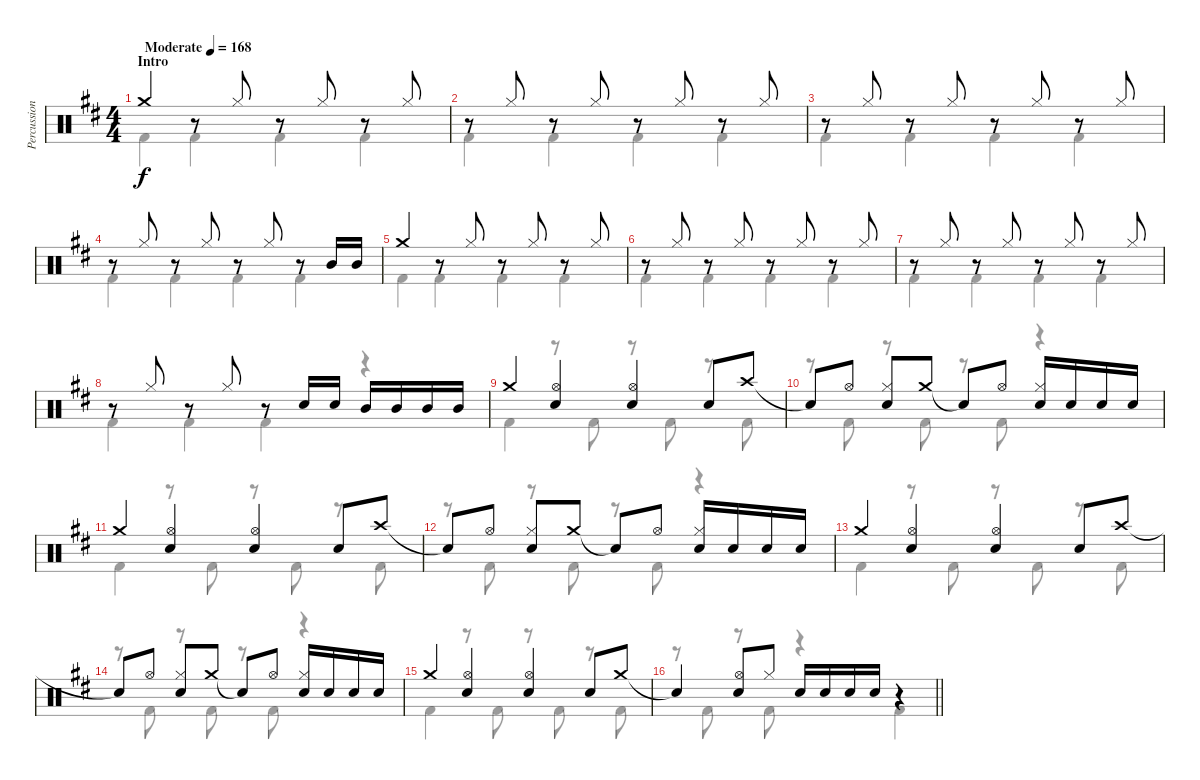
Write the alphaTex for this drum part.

\track ("Percussion" "Percussion") {instrument percussion}
\staff {score}
\articulation defaults
\voice
\ts (4 4)
\section ("" "Intro")
\tempo (168 "Moderate")
\clef neutral
\ks d "Crash medium (hit)".4{dy f}
r.8 "Hi-Hat (closed)".8 r.8 "Hi-Hat (closed)".8 r.8 "Hi-Hat (closed)".8 |
r.8 "Hi-Hat (closed)".8 r.8 "Hi-Hat (closed)".8 r.8 "Hi-Hat (closed)".8 r.8 "Hi-Hat (closed)".8 |
r.8 "Hi-Hat (closed)".8 r.8 "Hi-Hat (closed)".8 r.8 "Hi-Hat (closed)".8 r.8 "Hi-Hat (closed)".8 |
r.8 "Hi-Hat (closed)".8 r.8 "Hi-Hat (closed)".8 r.8 "Hi-Hat (closed)".8 r.8 "Mid Tom (hit)".16 "Mid Tom (hit)".16 |
"Crash medium (hit)".4 r.8 "Hi-Hat (closed)".8 r.8 "Hi-Hat (closed)".8 r.8 "Hi-Hat (closed)".8 |
r.8 "Hi-Hat (closed)".8 r.8 "Hi-Hat (closed)".8 r.8 "Hi-Hat (closed)".8 r.8 "Hi-Hat (closed)".8 |
r.8 "Hi-Hat (closed)".8 r.8 "Hi-Hat (closed)".8 r.8 "Hi-Hat (closed)".8 r.8 "Hi-Hat (closed)".8 |
r.8 "Hi-Hat (closed)".8 r.8 "Hi-Hat (closed)".8 r.8 "Snare (hit) 2".16 "Snare (hit) 2".16 "Mid Tom (hit)".16 "Mid Tom (hit)".16 "Mid Tom (hit)".16 "Mid Tom (hit)".16 |
"Crash medium (hit)".4 ("Hi-Hat (open)" "Snare (hit) 2").4 ("Hi-Hat (open)" "Snare (hit) 2").4 "Snare (hit) 2".8 "Crash high (hit)".8 |
"Snare (hit)"{t}.8 "Hi-Hat (open)".8 ("Hi-Hat (closed)" "Snare (hit) 2").8 "Crash medium (hit)".8 "Snare (hit)"{t}.8 "Hi-Hat (open)".8 ("Hi-Hat (closed)" "Snare (hit) 2").16 "Snare (hit) 2".16 "Snare (hit) 2".16 "Snare (hit) 2".16 |
"Crash medium (hit)".4 ("Hi-Hat (open)" "Snare (hit) 2").4 ("Hi-Hat (open)" "Snare (hit) 2").4 "Snare (hit) 2".8 "Crash high (hit)".8 |
"Snare (hit)"{t}.8 "Hi-Hat (open)".8 ("Hi-Hat (closed)" "Snare (hit) 2").8 "Crash medium (hit)".8 "Snare (hit)"{t}.8 "Hi-Hat (open)".8 ("Hi-Hat (closed)" "Snare (hit) 2").16 "Snare (hit) 2".16 "Snare (hit) 2".16 "Snare (hit) 2".16 |
"Crash medium (hit)".4 ("Hi-Hat (open)" "Snare (hit) 2").4 ("Hi-Hat (open)" "Snare (hit) 2").4 "Snare (hit) 2".8 "Crash high (hit)".8 |
"Snare (hit)"{t}.8 "Hi-Hat (open)".8 ("Hi-Hat (closed)" "Snare (hit) 2").8 "Crash medium (hit)".8 "Snare (hit)"{t}.8 "Hi-Hat (open)".8 ("Hi-Hat (closed)" "Snare (hit) 2").16 "Snare (hit) 2".16 "Snare (hit) 2".16 "Snare (hit) 2".16 |
"Crash medium (hit)".4 ("Hi-Hat (open)" "Snare (hit) 2").4 ("Hi-Hat (open)" "Snare (hit) 2").4 "Snare (hit) 2".8 "Crash medium (hit)".8 |
\barLineRight lightlight "Snare (hit)"{t}.4
("Hi-Hat (open)" "Snare (hit) 2").8 "Hi-Hat (closed)".8 "Snare (hit) 2".16 "Snare (hit) 2".16 "Snare (hit) 2".16 "Snare (hit) 2".16 r.4
\voice
\clef neutral
\ottava regular
\simile none
\ks d "Kick (hit) 2".4{dy f} "Kick (hit) 2".4 "Kick (hit) 2".4 "Kick (hit) 2".4
|
"Kick (hit) 2".4 "Kick (hit) 2".4 "Kick (hit) 2".4 "Kick (hit) 2".4 |
"Kick (hit) 2".4 "Kick (hit) 2".4 "Kick (hit) 2".4 "Kick (hit) 2".4 |
"Kick (hit) 2".4 "Kick (hit) 2".4 "Kick (hit) 2".4 "Kick (hit) 2".4 |
"Kick (hit) 2".4 "Kick (hit) 2".4 "Kick (hit) 2".4 "Kick (hit) 2".4 |
"Kick (hit) 2".4 "Kick (hit) 2".4 "Kick (hit) 2".4 "Kick (hit) 2".4 |
"Kick (hit) 2".4 "Kick (hit) 2".4 "Kick (hit) 2".4 "Kick (hit) 2".4 |
"Kick (hit) 2".4 "Kick (hit) 2".4 "Kick (hit) 2".4 r.4 |
"Kick (hit) 2".4 r.8 "Kick (hit) 2".8 r.8 "Kick (hit) 2".8 r.8 "Kick (hit) 2".8 |
r.8 "Kick (hit) 2".8 r.8 "Kick (hit) 2".8 r.8 "Kick (hit) 2".8 r.4 |
"Kick (hit) 2".4 r.8 "Kick (hit) 2".8 r.8 "Kick (hit) 2".8 r.8 "Kick (hit) 2".8 |
r.8 "Kick (hit) 2".8 r.8 "Kick (hit) 2".8 r.8 "Kick (hit) 2".8 r.4 |
"Kick (hit) 2".4 r.8 "Kick (hit) 2".8 r.8 "Kick (hit) 2".8 r.8 "Kick (hit) 2".8 |
r.8 "Kick (hit) 2".8 r.8 "Kick (hit) 2".8 r.8 "Kick (hit) 2".8 r.4 |
"Kick (hit) 2".4 r.8 "Kick (hit) 2".8 r.8 "Kick (hit) 2".8 r.8 "Kick (hit) 2".8 |
\barLineRight lightlight
r.8 "Kick (hit) 2".8 r.8 "Kick (hit) 2".8 r.4 "Kick (hit) 2".4
